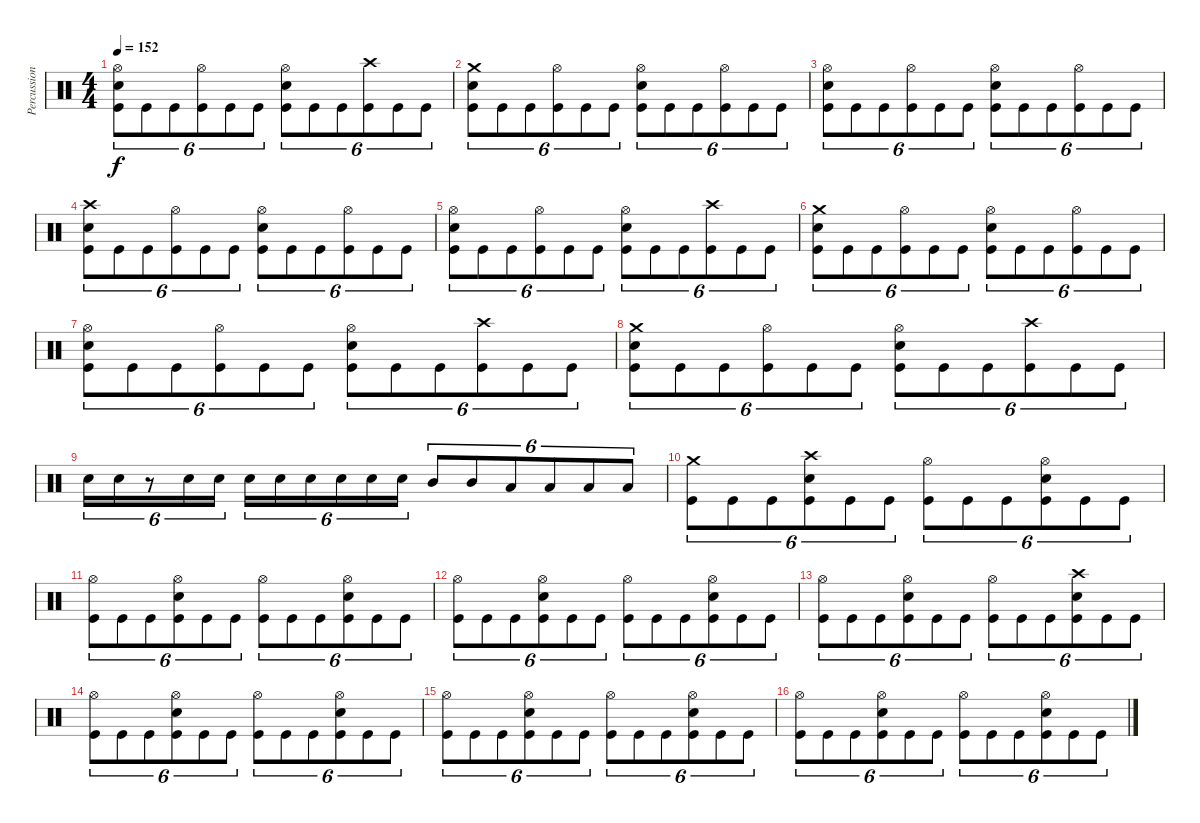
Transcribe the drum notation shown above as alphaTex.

\track ("Percussion" "Percussion") {instrument percussion}
\staff {score}
\articulation defaults
\ts (4 4)
\tempo 152
\clef neutral
\ks c
("Hi-Hat (open)" "Snare (hit) 2" "Kick (hit)").8{tu (6 4) dy f} "Kick (hit)".8{tu (6 4)} "Kick (hit)".8{tu (6 4)} ("Hi-Hat (open)" "Kick (hit)").8{tu (6 4)} "Kick (hit)".8{tu (6 4)} "Kick (hit)".8{tu (6 4)} ("Hi-Hat (open)" "Snare (hit) 2" "Kick (hit)").8{tu (6 4)} "Kick (hit)".8{tu (6 4)} "Kick (hit)".8{tu (6 4)} ("Crash high (hit)" "Kick (hit)").8{tu (6 4)} "Kick (hit)".8{tu (6 4)} "Kick (hit)".8{tu (6 4)} |
("Crash medium (hit)" "Snare (hit) 2" "Kick (hit)").8{tu (6 4)} "Kick (hit)".8{tu (6 4)} "Kick (hit)".8{tu (6 4)} ("Hi-Hat (open)" "Kick (hit)").8{tu (6 4)} "Kick (hit)".8{tu (6 4)} "Kick (hit)".8{tu (6 4)} ("Hi-Hat (open)" "Snare (hit) 2" "Kick (hit)").8{tu (6 4)} "Kick (hit)".8{tu (6 4)} "Kick (hit)".8{tu (6 4)} ("Hi-Hat (open)" "Kick (hit)").8{tu (6 4)} "Kick (hit)".8{tu (6 4)} "Kick (hit)".8{tu (6 4)} |
("Hi-Hat (open)" "Snare (hit) 2" "Kick (hit)").8{tu (6 4)} "Kick (hit)".8{tu (6 4)} "Kick (hit)".8{tu (6 4)} ("Hi-Hat (open)" "Kick (hit)").8{tu (6 4)} "Kick (hit)".8{tu (6 4)} "Kick (hit)".8{tu (6 4)} ("Hi-Hat (open)" "Snare (hit) 2" "Kick (hit)").8{tu (6 4)} "Kick (hit)".8{tu (6 4)} "Kick (hit)".8{tu (6 4)} ("Hi-Hat (open)" "Kick (hit)").8{tu (6 4)} "Kick (hit)".8{tu (6 4)} "Kick (hit)".8{tu (6 4)} |
("Crash high (hit)" "Snare (hit) 2" "Kick (hit)").8{tu (6 4)} "Kick (hit)".8{tu (6 4)} "Kick (hit)".8{tu (6 4)} ("Hi-Hat (open)" "Kick (hit)").8{tu (6 4)} "Kick (hit)".8{tu (6 4)} "Kick (hit)".8{tu (6 4)} ("Hi-Hat (open)" "Snare (hit) 2" "Kick (hit)").8{tu (6 4)} "Kick (hit)".8{tu (6 4)} "Kick (hit)".8{tu (6 4)} ("Hi-Hat (open)" "Kick (hit)").8{tu (6 4)} "Kick (hit)".8{tu (6 4)} "Kick (hit)".8{tu (6 4)} |
("Hi-Hat (open)" "Snare (hit) 2" "Kick (hit)").8{tu (6 4)} "Kick (hit)".8{tu (6 4)} "Kick (hit)".8{tu (6 4)} ("Hi-Hat (open)" "Kick (hit)").8{tu (6 4)} "Kick (hit)".8{tu (6 4)} "Kick (hit)".8{tu (6 4)} ("Hi-Hat (open)" "Snare (hit) 2" "Kick (hit)").8{tu (6 4)} "Kick (hit)".8{tu (6 4)} "Kick (hit)".8{tu (6 4)} ("Crash high (hit)" "Kick (hit)").8{tu (6 4)} "Kick (hit)".8{tu (6 4)} "Kick (hit)".8{tu (6 4)} |
("Crash medium (hit)" "Snare (hit) 2" "Kick (hit)").8{tu (6 4)} "Kick (hit)".8{tu (6 4)} "Kick (hit)".8{tu (6 4)} ("Hi-Hat (open)" "Kick (hit)").8{tu (6 4)} "Kick (hit)".8{tu (6 4)} "Kick (hit)".8{tu (6 4)} ("Hi-Hat (open)" "Snare (hit) 2" "Kick (hit)").8{tu (6 4)} "Kick (hit)".8{tu (6 4)} "Kick (hit)".8{tu (6 4)} ("Hi-Hat (open)" "Kick (hit)").8{tu (6 4)} "Kick (hit)".8{tu (6 4)} "Kick (hit)".8{tu (6 4)} |
("Hi-Hat (open)" "Snare (hit) 2" "Kick (hit)").8{tu (6 4)} "Kick (hit)".8{tu (6 4)} "Kick (hit)".8{tu (6 4)} ("Hi-Hat (open)" "Kick (hit)").8{tu (6 4)} "Kick (hit)".8{tu (6 4)} "Kick (hit)".8{tu (6 4)} ("Hi-Hat (open)" "Snare (hit) 2" "Kick (hit)").8{tu (6 4)} "Kick (hit)".8{tu (6 4)} "Kick (hit)".8{tu (6 4)} ("Crash high (hit)" "Kick (hit)").8{tu (6 4)} "Kick (hit)".8{tu (6 4)} "Kick (hit)".8{tu (6 4)} |
("Crash medium (hit)" "Snare (hit) 2" "Kick (hit)").8{tu (6 4)} "Kick (hit)".8{tu (6 4)} "Kick (hit)".8{tu (6 4)} ("Hi-Hat (open)" "Kick (hit)").8{tu (6 4)} "Kick (hit)".8{tu (6 4)} "Kick (hit)".8{tu (6 4)} ("Hi-Hat (open)" "Snare (hit) 2" "Kick (hit)").8{tu (6 4)} "Kick (hit)".8{tu (6 4)} "Kick (hit)".8{tu (6 4)} ("Crash high (hit)" "Kick (hit)").8{tu (6 4)} "Kick (hit)".8{tu (6 4)} "Kick (hit)".8{tu (6 4)} |
"Snare (hit) 2".16{tu (6 4)} "Snare (hit) 2".16{tu (6 4)} r.8{tu (6 4)} "Snare (hit) 2".16{tu (6 4)} "Snare (hit) 2".16{tu (6 4)} "Snare (hit) 2".16{tu (6 4)} "Snare (hit) 2".16{tu (6 4)} "Snare (hit) 2".16{tu (6 4)} "Snare (hit) 2".16{tu (6 4)} "Snare (hit) 2".16{tu (6 4)} "Snare (hit) 2".16{tu (6 4)} "Mid Tom (hit)".8{tu (6 4)} "Mid Tom (hit)".8{tu (6 4)} "Low Tom (hit)".8{tu (6 4)} "Low Tom (hit)".8{tu (6 4)} "Low Floor Tom (hit)".8{tu (6 4)} "Low Floor Tom (hit)".8{tu (6 4)} |
("Crash medium (hit)" "Kick (hit)").8{tu (6 4)} "Kick (hit)".8{tu (6 4)} "Kick (hit)".8{tu (6 4)} ("Crash high (hit)" "Snare (hit) 2" "Kick (hit)").8{tu (6 4)} "Kick (hit)".8{tu (6 4)} "Kick (hit)".8{tu (6 4)} ("Hi-Hat (open)" "Kick (hit)").8{tu (6 4)} "Kick (hit)".8{tu (6 4)} "Kick (hit)".8{tu (6 4)} ("Hi-Hat (open)" "Snare (hit) 2" "Kick (hit)").8{tu (6 4)} "Kick (hit)".8{tu (6 4)} "Kick (hit)".8{tu (6 4)} |
("Hi-Hat (open)" "Kick (hit)").8{tu (6 4)} "Kick (hit)".8{tu (6 4)} "Kick (hit)".8{tu (6 4)} ("Hi-Hat (open)" "Snare (hit) 2" "Kick (hit)").8{tu (6 4)} "Kick (hit)".8{tu (6 4)} "Kick (hit)".8{tu (6 4)} ("Hi-Hat (open)" "Kick (hit)").8{tu (6 4)} "Kick (hit)".8{tu (6 4)} "Kick (hit)".8{tu (6 4)} ("Hi-Hat (open)" "Snare (hit) 2" "Kick (hit)").8{tu (6 4)} "Kick (hit)".8{tu (6 4)} "Kick (hit)".8{tu (6 4)} |
("Hi-Hat (open)" "Kick (hit)").8{tu (6 4)} "Kick (hit)".8{tu (6 4)} "Kick (hit)".8{tu (6 4)} ("Hi-Hat (open)" "Snare (hit) 2" "Kick (hit)").8{tu (6 4)} "Kick (hit)".8{tu (6 4)} "Kick (hit)".8{tu (6 4)} ("Hi-Hat (open)" "Kick (hit)").8{tu (6 4)} "Kick (hit)".8{tu (6 4)} "Kick (hit)".8{tu (6 4)} ("Hi-Hat (open)" "Snare (hit) 2" "Kick (hit)").8{tu (6 4)} "Kick (hit)".8{tu (6 4)} "Kick (hit)".8{tu (6 4)} |
("Hi-Hat (open)" "Kick (hit)").8{tu (6 4)} "Kick (hit)".8{tu (6 4)} "Kick (hit)".8{tu (6 4)} ("Hi-Hat (open)" "Snare (hit) 2" "Kick (hit)").8{tu (6 4)} "Kick (hit)".8{tu (6 4)} "Kick (hit)".8{tu (6 4)} ("Hi-Hat (open)" "Kick (hit)").8{tu (6 4)} "Kick (hit)".8{tu (6 4)} "Kick (hit)".8{tu (6 4)} ("Crash high (hit)" "Snare (hit) 2" "Kick (hit)").8{tu (6 4)} "Kick (hit)".8{tu (6 4)} "Kick (hit)".8{tu (6 4)} |
("Hi-Hat (open)" "Kick (hit)").8{tu (6 4)} "Kick (hit)".8{tu (6 4)} "Kick (hit)".8{tu (6 4)} ("Hi-Hat (open)" "Snare (hit) 2" "Kick (hit)").8{tu (6 4)} "Kick (hit)".8{tu (6 4)} "Kick (hit)".8{tu (6 4)} ("Hi-Hat (open)" "Kick (hit)").8{tu (6 4)} "Kick (hit)".8{tu (6 4)} "Kick (hit)".8{tu (6 4)} ("Hi-Hat (open)" "Snare (hit) 2" "Kick (hit)").8{tu (6 4)} "Kick (hit)".8{tu (6 4)} "Kick (hit)".8{tu (6 4)} |
("Hi-Hat (open)" "Kick (hit)").8{tu (6 4)} "Kick (hit)".8{tu (6 4)} "Kick (hit)".8{tu (6 4)} ("Hi-Hat (open)" "Snare (hit) 2" "Kick (hit)").8{tu (6 4)} "Kick (hit)".8{tu (6 4)} "Kick (hit)".8{tu (6 4)} ("Hi-Hat (open)" "Kick (hit)").8{tu (6 4)} "Kick (hit)".8{tu (6 4)} "Kick (hit)".8{tu (6 4)} ("Hi-Hat (open)" "Snare (hit) 2" "Kick (hit)").8{tu (6 4)} "Kick (hit)".8{tu (6 4)} "Kick (hit)".8{tu (6 4)} |
("Hi-Hat (open)" "Kick (hit)").8{tu (6 4)} "Kick (hit)".8{tu (6 4)} "Kick (hit)".8{tu (6 4)} ("Hi-Hat (open)" "Snare (hit) 2" "Kick (hit)").8{tu (6 4)} "Kick (hit)".8{tu (6 4)} "Kick (hit)".8{tu (6 4)} ("Hi-Hat (open)" "Kick (hit)").8{tu (6 4)} "Kick (hit)".8{tu (6 4)} "Kick (hit)".8{tu (6 4)} ("Hi-Hat (open)" "Snare (hit) 2" "Kick (hit)").8{tu (6 4)} "Kick (hit)".8{tu (6 4)} "Kick (hit)".8{tu (6 4)}
